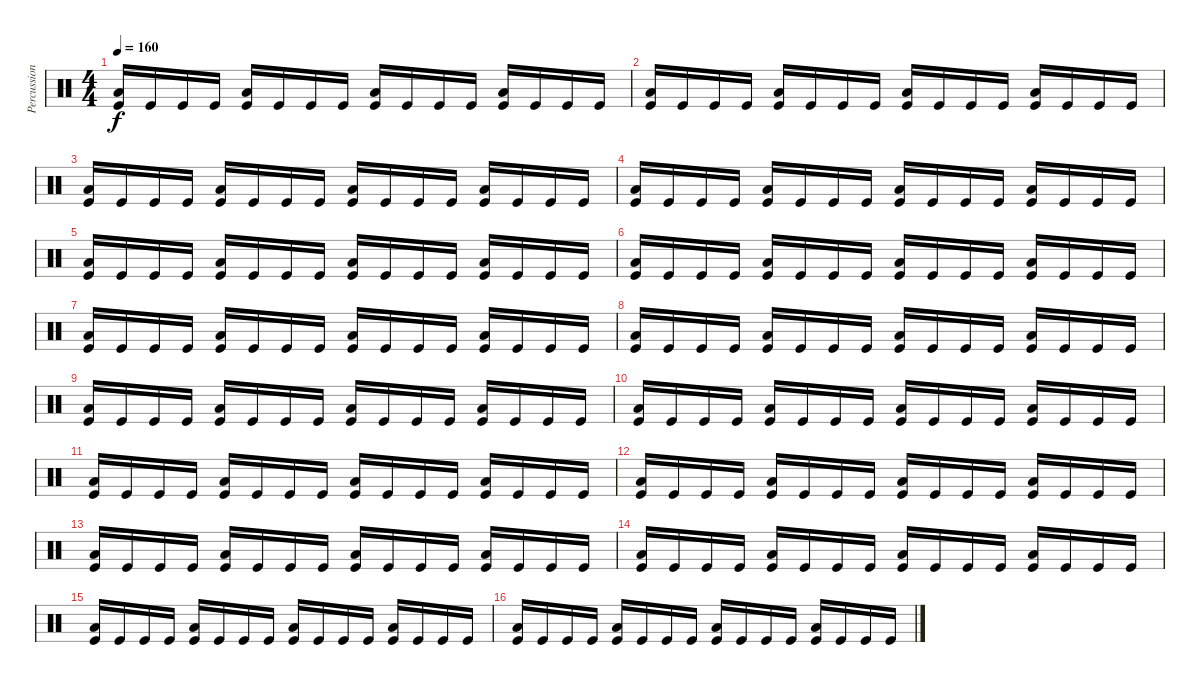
\track ("Percussion" "Percussion") {instrument percussion}
\staff {score}
\articulation defaults
\ts (4 4)
\tempo 160
\clef neutral
\ks c
("Low Floor Tom (hit)" "Kick (hit)").16{dy f} "Kick (hit)".16 "Kick (hit)".16 "Kick (hit)".16 ("Low Floor Tom (hit)" "Kick (hit)").16 "Kick (hit)".16 "Kick (hit)".16 "Kick (hit)".16 ("Low Floor Tom (hit)" "Kick (hit)").16 "Kick (hit)".16 "Kick (hit)".16 "Kick (hit)".16 ("Low Floor Tom (hit)" "Kick (hit)").16 "Kick (hit)".16 "Kick (hit)".16 "Kick (hit)".16 |
("Low Floor Tom (hit)" "Kick (hit)").16 "Kick (hit)".16 "Kick (hit)".16 "Kick (hit)".16 ("Low Floor Tom (hit)" "Kick (hit)").16 "Kick (hit)".16 "Kick (hit)".16 "Kick (hit)".16 ("Low Floor Tom (hit)" "Kick (hit)").16 "Kick (hit)".16 "Kick (hit)".16 "Kick (hit)".16 ("Low Floor Tom (hit)" "Kick (hit)").16 "Kick (hit)".16 "Kick (hit)".16 "Kick (hit)".16 |
("Low Floor Tom (hit)" "Kick (hit)").16 "Kick (hit)".16 "Kick (hit)".16 "Kick (hit)".16 ("Low Floor Tom (hit)" "Kick (hit)").16 "Kick (hit)".16 "Kick (hit)".16 "Kick (hit)".16 ("Low Floor Tom (hit)" "Kick (hit)").16 "Kick (hit)".16 "Kick (hit)".16 "Kick (hit)".16 ("Low Floor Tom (hit)" "Kick (hit)").16 "Kick (hit)".16 "Kick (hit)".16 "Kick (hit)".16 |
("Low Floor Tom (hit)" "Kick (hit)").16 "Kick (hit)".16 "Kick (hit)".16 "Kick (hit)".16 ("Low Floor Tom (hit)" "Kick (hit)").16 "Kick (hit)".16 "Kick (hit)".16 "Kick (hit)".16 ("Low Floor Tom (hit)" "Kick (hit)").16 "Kick (hit)".16 "Kick (hit)".16 "Kick (hit)".16 ("Low Floor Tom (hit)" "Kick (hit)").16 "Kick (hit)".16 "Kick (hit)".16 "Kick (hit)".16 |
("Low Floor Tom (hit)" "Kick (hit)").16 "Kick (hit)".16 "Kick (hit)".16 "Kick (hit)".16 ("Low Floor Tom (hit)" "Kick (hit)").16 "Kick (hit)".16 "Kick (hit)".16 "Kick (hit)".16 ("Low Floor Tom (hit)" "Kick (hit)").16 "Kick (hit)".16 "Kick (hit)".16 "Kick (hit)".16 ("Low Floor Tom (hit)" "Kick (hit)").16 "Kick (hit)".16 "Kick (hit)".16 "Kick (hit)".16 |
("Low Floor Tom (hit)" "Kick (hit)").16 "Kick (hit)".16 "Kick (hit)".16 "Kick (hit)".16 ("Low Floor Tom (hit)" "Kick (hit)").16 "Kick (hit)".16 "Kick (hit)".16 "Kick (hit)".16 ("Low Floor Tom (hit)" "Kick (hit)").16 "Kick (hit)".16 "Kick (hit)".16 "Kick (hit)".16 ("Low Floor Tom (hit)" "Kick (hit)").16 "Kick (hit)".16 "Kick (hit)".16 "Kick (hit)".16 |
("Low Floor Tom (hit)" "Kick (hit)").16 "Kick (hit)".16 "Kick (hit)".16 "Kick (hit)".16 ("Low Floor Tom (hit)" "Kick (hit)").16 "Kick (hit)".16 "Kick (hit)".16 "Kick (hit)".16 ("Low Floor Tom (hit)" "Kick (hit)").16 "Kick (hit)".16 "Kick (hit)".16 "Kick (hit)".16 ("Low Floor Tom (hit)" "Kick (hit)").16 "Kick (hit)".16 "Kick (hit)".16 "Kick (hit)".16 |
("Low Floor Tom (hit)" "Kick (hit)").16 "Kick (hit)".16 "Kick (hit)".16 "Kick (hit)".16 ("Low Floor Tom (hit)" "Kick (hit)").16 "Kick (hit)".16 "Kick (hit)".16 "Kick (hit)".16 ("Low Floor Tom (hit)" "Kick (hit)").16 "Kick (hit)".16 "Kick (hit)".16 "Kick (hit)".16 ("Low Floor Tom (hit)" "Kick (hit)").16 "Kick (hit)".16 "Kick (hit)".16 "Kick (hit)".16 |
("Low Floor Tom (hit)" "Kick (hit)").16 "Kick (hit)".16 "Kick (hit)".16 "Kick (hit)".16 ("Low Floor Tom (hit)" "Kick (hit)").16 "Kick (hit)".16 "Kick (hit)".16 "Kick (hit)".16 ("Low Floor Tom (hit)" "Kick (hit)").16 "Kick (hit)".16 "Kick (hit)".16 "Kick (hit)".16 ("Low Floor Tom (hit)" "Kick (hit)").16 "Kick (hit)".16 "Kick (hit)".16 "Kick (hit)".16 |
("Low Floor Tom (hit)" "Kick (hit)").16 "Kick (hit)".16 "Kick (hit)".16 "Kick (hit)".16 ("Low Floor Tom (hit)" "Kick (hit)").16 "Kick (hit)".16 "Kick (hit)".16 "Kick (hit)".16 ("Low Floor Tom (hit)" "Kick (hit)").16 "Kick (hit)".16 "Kick (hit)".16 "Kick (hit)".16 ("Low Floor Tom (hit)" "Kick (hit)").16 "Kick (hit)".16 "Kick (hit)".16 "Kick (hit)".16 |
("Low Floor Tom (hit)" "Kick (hit)").16 "Kick (hit)".16 "Kick (hit)".16 "Kick (hit)".16 ("Low Floor Tom (hit)" "Kick (hit)").16 "Kick (hit)".16 "Kick (hit)".16 "Kick (hit)".16 ("Low Floor Tom (hit)" "Kick (hit)").16 "Kick (hit)".16 "Kick (hit)".16 "Kick (hit)".16 ("Low Floor Tom (hit)" "Kick (hit)").16 "Kick (hit)".16 "Kick (hit)".16 "Kick (hit)".16 |
("Low Floor Tom (hit)" "Kick (hit)").16 "Kick (hit)".16 "Kick (hit)".16 "Kick (hit)".16 ("Low Floor Tom (hit)" "Kick (hit)").16 "Kick (hit)".16 "Kick (hit)".16 "Kick (hit)".16 ("Low Floor Tom (hit)" "Kick (hit)").16 "Kick (hit)".16 "Kick (hit)".16 "Kick (hit)".16 ("Low Floor Tom (hit)" "Kick (hit)").16 "Kick (hit)".16 "Kick (hit)".16 "Kick (hit)".16 |
("Low Floor Tom (hit)" "Kick (hit)").16 "Kick (hit)".16 "Kick (hit)".16 "Kick (hit)".16 ("Low Floor Tom (hit)" "Kick (hit)").16 "Kick (hit)".16 "Kick (hit)".16 "Kick (hit)".16 ("Low Floor Tom (hit)" "Kick (hit)").16 "Kick (hit)".16 "Kick (hit)".16 "Kick (hit)".16 ("Low Floor Tom (hit)" "Kick (hit)").16 "Kick (hit)".16 "Kick (hit)".16 "Kick (hit)".16 |
("Low Floor Tom (hit)" "Kick (hit)").16 "Kick (hit)".16 "Kick (hit)".16 "Kick (hit)".16 ("Low Floor Tom (hit)" "Kick (hit)").16 "Kick (hit)".16 "Kick (hit)".16 "Kick (hit)".16 ("Low Floor Tom (hit)" "Kick (hit)").16 "Kick (hit)".16 "Kick (hit)".16 "Kick (hit)".16 ("Low Floor Tom (hit)" "Kick (hit)").16 "Kick (hit)".16 "Kick (hit)".16 "Kick (hit)".16 |
("Low Floor Tom (hit)" "Kick (hit)").16 "Kick (hit)".16 "Kick (hit)".16 "Kick (hit)".16 ("Low Floor Tom (hit)" "Kick (hit)").16 "Kick (hit)".16 "Kick (hit)".16 "Kick (hit)".16 ("Low Floor Tom (hit)" "Kick (hit)").16 "Kick (hit)".16 "Kick (hit)".16 "Kick (hit)".16 ("Low Floor Tom (hit)" "Kick (hit)").16 "Kick (hit)".16 "Kick (hit)".16 "Kick (hit)".16 |
("Low Floor Tom (hit)" "Kick (hit)").16 "Kick (hit)".16 "Kick (hit)".16 "Kick (hit)".16 ("Low Floor Tom (hit)" "Kick (hit)").16 "Kick (hit)".16 "Kick (hit)".16 "Kick (hit)".16 ("Low Floor Tom (hit)" "Kick (hit)").16 "Kick (hit)".16 "Kick (hit)".16 "Kick (hit)".16 ("Low Floor Tom (hit)" "Kick (hit)").16 "Kick (hit)".16 "Kick (hit)".16 "Kick (hit)".16
